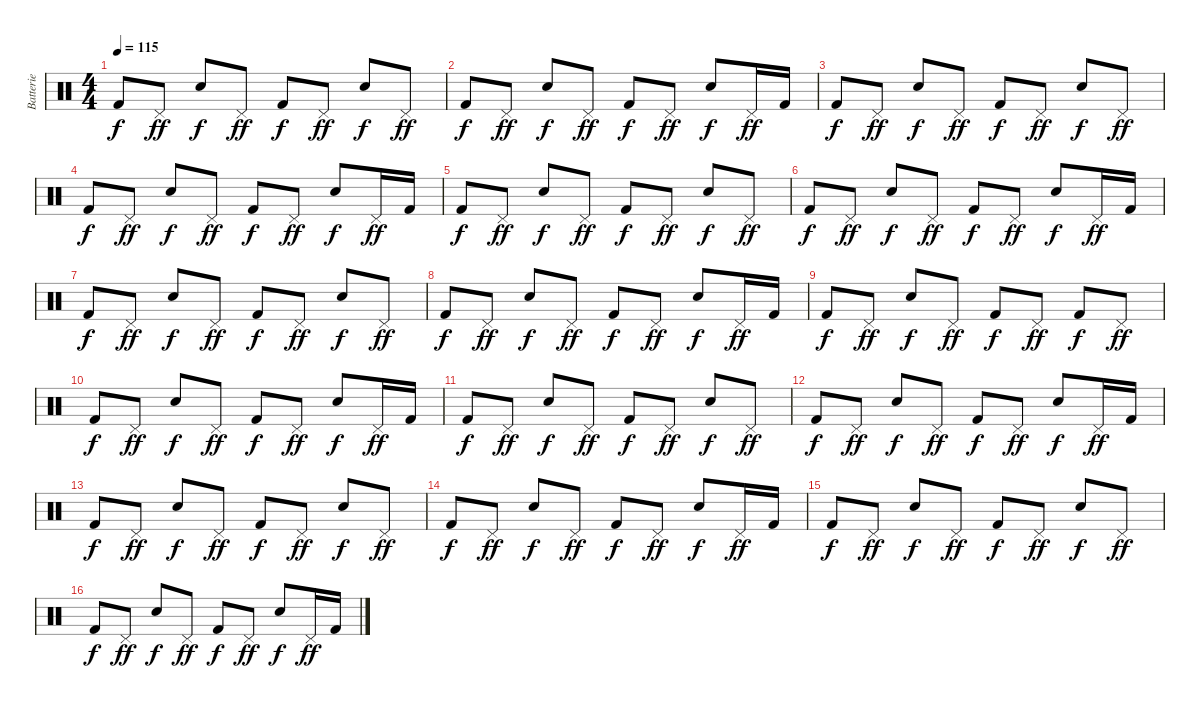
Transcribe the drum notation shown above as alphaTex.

\track ("Batterie" "Batterie") {instrument percussion}
\staff {score}
\articulation defaults
\ts (4 4)
\tempo 115
\clef neutral
\ks c "Kick (hit) 2".8{dy f} "Pedal Hi-Hat (hit)".8{dy ff} "Electric Snare (hit)".8{dy f} "Pedal Hi-Hat (hit)".8{dy ff} "Kick (hit) 2".8{dy f} "Pedal Hi-Hat (hit)".8{dy ff} "Electric Snare (hit)".8{dy f} "Pedal Hi-Hat (hit)".8{dy ff}
|
"Kick (hit) 2".8{dy f} "Pedal Hi-Hat (hit)".8{dy ff} "Electric Snare (hit)".8{dy f} "Pedal Hi-Hat (hit)".8{dy ff} "Kick (hit) 2".8{dy f} "Pedal Hi-Hat (hit)".8{dy ff} "Electric Snare (hit)".8{dy f} "Pedal Hi-Hat (hit)".16{dy ff} "Kick (hit) 2".16 |
"Kick (hit) 2".8{dy f} "Pedal Hi-Hat (hit)".8{dy ff} "Electric Snare (hit)".8{dy f} "Pedal Hi-Hat (hit)".8{dy ff} "Kick (hit) 2".8{dy f} "Pedal Hi-Hat (hit)".8{dy ff} "Electric Snare (hit)".8{dy f} "Pedal Hi-Hat (hit)".8{dy ff} |
"Kick (hit) 2".8{dy f} "Pedal Hi-Hat (hit)".8{dy ff} "Electric Snare (hit)".8{dy f} "Pedal Hi-Hat (hit)".8{dy ff} "Kick (hit) 2".8{dy f} "Pedal Hi-Hat (hit)".8{dy ff} "Electric Snare (hit)".8{dy f} "Pedal Hi-Hat (hit)".16{dy ff} "Kick (hit) 2".16 |
"Kick (hit) 2".8{dy f} "Pedal Hi-Hat (hit)".8{dy ff} "Electric Snare (hit)".8{dy f} "Pedal Hi-Hat (hit)".8{dy ff} "Kick (hit) 2".8{dy f} "Pedal Hi-Hat (hit)".8{dy ff} "Electric Snare (hit)".8{dy f} "Pedal Hi-Hat (hit)".8{dy ff} |
"Kick (hit) 2".8{dy f} "Pedal Hi-Hat (hit)".8{dy ff} "Electric Snare (hit)".8{dy f} "Pedal Hi-Hat (hit)".8{dy ff} "Kick (hit) 2".8{dy f} "Pedal Hi-Hat (hit)".8{dy ff} "Electric Snare (hit)".8{dy f} "Pedal Hi-Hat (hit)".16{dy ff} "Kick (hit) 2".16 |
"Kick (hit) 2".8{dy f} "Pedal Hi-Hat (hit)".8{dy ff} "Electric Snare (hit)".8{dy f} "Pedal Hi-Hat (hit)".8{dy ff} "Kick (hit) 2".8{dy f} "Pedal Hi-Hat (hit)".8{dy ff} "Electric Snare (hit)".8{dy f} "Pedal Hi-Hat (hit)".8{dy ff} |
"Kick (hit) 2".8{dy f} "Pedal Hi-Hat (hit)".8{dy ff} "Electric Snare (hit)".8{dy f} "Pedal Hi-Hat (hit)".8{dy ff} "Kick (hit) 2".8{dy f} "Pedal Hi-Hat (hit)".8{dy ff} "Electric Snare (hit)".8{dy f} "Pedal Hi-Hat (hit)".16{dy ff} "Kick (hit) 2".16 |
"Kick (hit) 2".8{dy f} "Pedal Hi-Hat (hit)".8{dy ff} "Electric Snare (hit)".8{dy f} "Pedal Hi-Hat (hit)".8{dy ff} "Kick (hit) 2".8{dy f} "Pedal Hi-Hat (hit)".8{dy ff} "Kick (hit) 2".8{dy f} "Pedal Hi-Hat (hit)".8{dy ff} |
"Kick (hit) 2".8{dy f} "Pedal Hi-Hat (hit)".8{dy ff} "Electric Snare (hit)".8{dy f} "Pedal Hi-Hat (hit)".8{dy ff} "Kick (hit) 2".8{dy f} "Pedal Hi-Hat (hit)".8{dy ff} "Electric Snare (hit)".8{dy f} "Pedal Hi-Hat (hit)".16{dy ff} "Kick (hit) 2".16 |
"Kick (hit) 2".8{dy f} "Pedal Hi-Hat (hit)".8{dy ff} "Electric Snare (hit)".8{dy f} "Pedal Hi-Hat (hit)".8{dy ff} "Kick (hit) 2".8{dy f} "Pedal Hi-Hat (hit)".8{dy ff} "Electric Snare (hit)".8{dy f} "Pedal Hi-Hat (hit)".8{dy ff} |
"Kick (hit) 2".8{dy f} "Pedal Hi-Hat (hit)".8{dy ff} "Electric Snare (hit)".8{dy f} "Pedal Hi-Hat (hit)".8{dy ff} "Kick (hit) 2".8{dy f} "Pedal Hi-Hat (hit)".8{dy ff} "Electric Snare (hit)".8{dy f} "Pedal Hi-Hat (hit)".16{dy ff} "Kick (hit) 2".16 |
"Kick (hit) 2".8{dy f} "Pedal Hi-Hat (hit)".8{dy ff} "Electric Snare (hit)".8{dy f} "Pedal Hi-Hat (hit)".8{dy ff} "Kick (hit) 2".8{dy f} "Pedal Hi-Hat (hit)".8{dy ff} "Electric Snare (hit)".8{dy f} "Pedal Hi-Hat (hit)".8{dy ff} |
"Kick (hit) 2".8{dy f} "Pedal Hi-Hat (hit)".8{dy ff} "Electric Snare (hit)".8{dy f} "Pedal Hi-Hat (hit)".8{dy ff} "Kick (hit) 2".8{dy f} "Pedal Hi-Hat (hit)".8{dy ff} "Electric Snare (hit)".8{dy f} "Pedal Hi-Hat (hit)".16{dy ff} "Kick (hit) 2".16 |
"Kick (hit) 2".8{dy f} "Pedal Hi-Hat (hit)".8{dy ff} "Electric Snare (hit)".8{dy f} "Pedal Hi-Hat (hit)".8{dy ff} "Kick (hit) 2".8{dy f} "Pedal Hi-Hat (hit)".8{dy ff} "Electric Snare (hit)".8{dy f} "Pedal Hi-Hat (hit)".8{dy ff} |
"Kick (hit) 2".8{dy f} "Pedal Hi-Hat (hit)".8{dy ff} "Electric Snare (hit)".8{dy f} "Pedal Hi-Hat (hit)".8{dy ff} "Kick (hit) 2".8{dy f} "Pedal Hi-Hat (hit)".8{dy ff} "Electric Snare (hit)".8{dy f} "Pedal Hi-Hat (hit)".16{dy ff} "Kick (hit) 2".16
